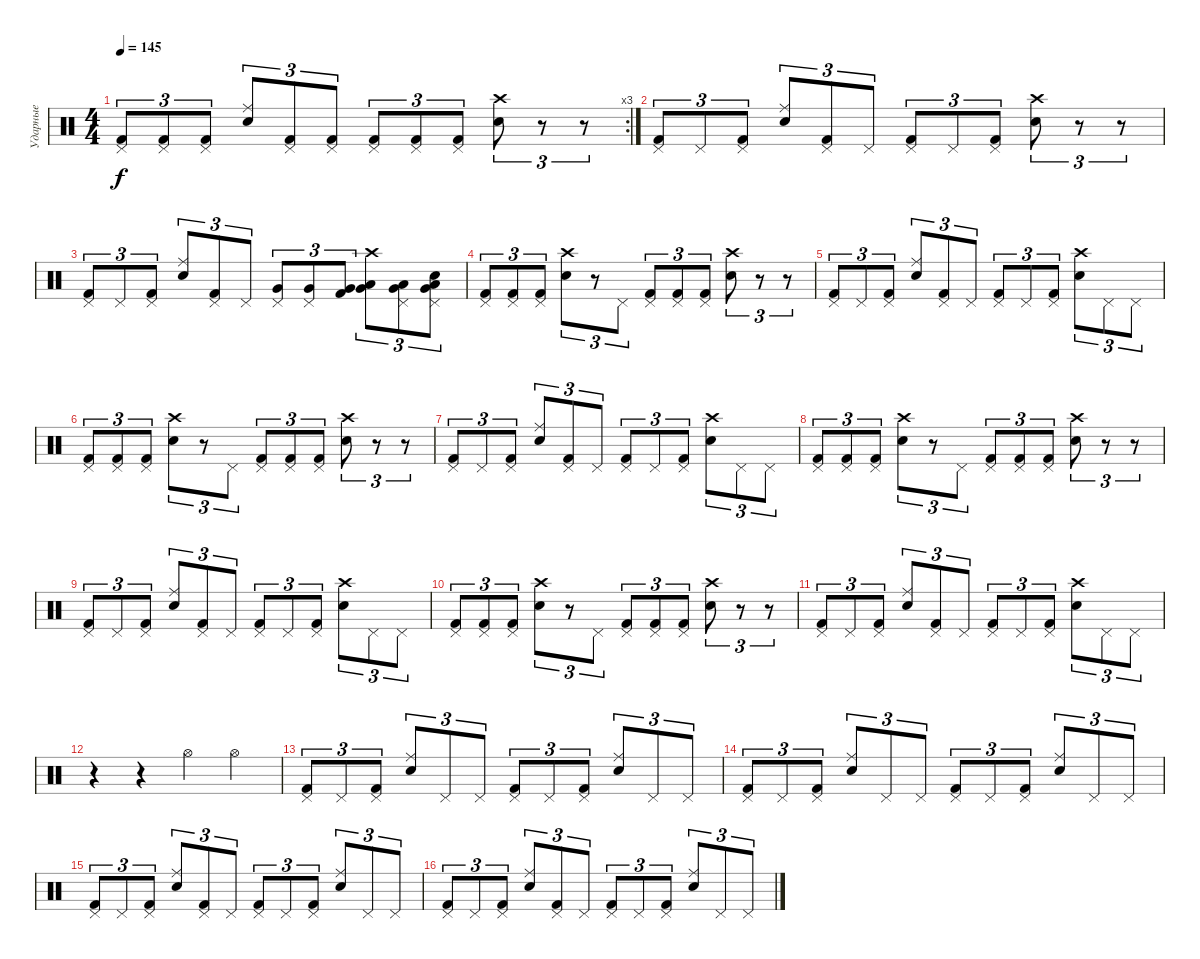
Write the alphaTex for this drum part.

\track ("Ударные" "Ударные") {instrument percussion}
\staff {score}
\articulation defaults
\rc 3
\ts (4 4)
\tempo 145
\clef neutral
\ks c
("Kick (hit) 2" "Pedal Hi-Hat (hit)").8{tu (3 2) dy f} ("Pedal Hi-Hat (hit)" "Kick (hit) 2").8{tu (3 2)} ("Kick (hit) 2" "Pedal Hi-Hat (hit)").8{tu (3 2)} ("Electric Snare (hit)" "Ride (middle)").8{tu (3 2)} ("Kick (hit) 2" "Pedal Hi-Hat (hit)").8{tu (3 2)} ("Kick (hit) 2" "Pedal Hi-Hat (hit)").8{tu (3 2)} ("Kick (hit) 2" "Pedal Hi-Hat (hit)").8{tu (3 2)} ("Kick (hit) 2" "Pedal Hi-Hat (hit)").8{tu (3 2)} ("Pedal Hi-Hat (hit)" "Kick (hit) 2").8{tu (3 2)} ("Electric Snare (hit)" "Crash high (hit)").8{tu (3 2)} r.8{tu (3 2)} r.8{tu (3 2)} |
("Kick (hit) 2" "Pedal Hi-Hat (hit)").8{tu (3 2)} "Pedal Hi-Hat (hit)".8{tu (3 2)} ("Kick (hit) 2" "Pedal Hi-Hat (hit)").8{tu (3 2)} ("Electric Snare (hit)" "Ride (middle)").8{tu (3 2)} ("Kick (hit) 2" "Pedal Hi-Hat (hit)").8{tu (3 2)} "Pedal Hi-Hat (hit)".8{tu (3 2)} ("Kick (hit) 2" "Pedal Hi-Hat (hit)").8{tu (3 2)} "Pedal Hi-Hat (hit)".8{tu (3 2)} ("Pedal Hi-Hat (hit)" "Kick (hit) 2").8{tu (3 2)} ("Electric Snare (hit)" "Crash high (hit)").8{tu (3 2)} r.8{tu (3 2)} r.8{tu (3 2)} |
("Kick (hit) 2" "Pedal Hi-Hat (hit)").8{tu (3 2)} "Pedal Hi-Hat (hit)".8{tu (3 2)} ("Kick (hit) 2" "Pedal Hi-Hat (hit)").8{tu (3 2)} ("Electric Snare (hit)" "Ride (middle)").8{tu (3 2)} ("Kick (hit) 2" "Pedal Hi-Hat (hit)").8{tu (3 2)} "Pedal Hi-Hat (hit)".8{tu (3 2)} ("Very Low Tom (hit)" "Pedal Hi-Hat (hit)").8{tu (3 2)} ("Very Low Tom (hit)" "Pedal Hi-Hat (hit)").8{tu (3 2)} ("Very Low Tom (hit)" "Kick (hit) 2").8{tu (3 2)} ("Low Tom (hit)" "Very Low Tom (hit)" "Crash high (hit)").8{tu (3 2)} ("Low Tom (hit)" "Very Low Tom (hit)" "Pedal Hi-Hat (hit)").8{tu (3 2)} ("Low Tom (hit)" "Very Low Tom (hit)" "Pedal Hi-Hat (hit)" "Electric Snare (hit)").8{tu (3 2)} |
("Kick (hit) 2" "Pedal Hi-Hat (hit)").8{tu (3 2)} ("Kick (hit) 2" "Pedal Hi-Hat (hit)").8{tu (3 2)} ("Kick (hit) 2" "Pedal Hi-Hat (hit)").8{tu (3 2)} ("Crash high (hit)" "Electric Snare (hit)").8{tu (3 2)} r.8{tu (3 2)} "Pedal Hi-Hat (hit)".8{tu (3 2)} ("Kick (hit) 2" "Pedal Hi-Hat (hit)").8{tu (3 2)} ("Kick (hit) 2" "Pedal Hi-Hat (hit)").8{tu (3 2)} ("Kick (hit) 2" "Pedal Hi-Hat (hit)").8{tu (3 2)} ("Electric Snare (hit)" "Crash high (hit)").8{tu (3 2)} r.8{tu (3 2)} r.8{tu (3 2)} |
("Kick (hit) 2" "Pedal Hi-Hat (hit)").8{tu (3 2)} "Pedal Hi-Hat (hit)".8{tu (3 2)} ("Kick (hit) 2" "Pedal Hi-Hat (hit)").8{tu (3 2)} ("Electric Snare (hit)" "Ride (middle)").8{tu (3 2)} ("Kick (hit) 2" "Pedal Hi-Hat (hit)").8{tu (3 2)} "Pedal Hi-Hat (hit)".8{tu (3 2)} ("Kick (hit) 2" "Pedal Hi-Hat (hit)").8{tu (3 2)} "Pedal Hi-Hat (hit)".8{tu (3 2)} ("Pedal Hi-Hat (hit)" "Kick (hit) 2").8{tu (3 2)} ("Electric Snare (hit)" "Crash high (hit)").8{tu (3 2)} "Pedal Hi-Hat (hit)".8{tu (3 2)} "Pedal Hi-Hat (hit)".8{tu (3 2)} |
("Kick (hit) 2" "Pedal Hi-Hat (hit)").8{tu (3 2)} ("Kick (hit) 2" "Pedal Hi-Hat (hit)").8{tu (3 2)} ("Kick (hit) 2" "Pedal Hi-Hat (hit)").8{tu (3 2)} ("Crash high (hit)" "Electric Snare (hit)").8{tu (3 2)} r.8{tu (3 2)} "Pedal Hi-Hat (hit)".8{tu (3 2)} ("Kick (hit) 2" "Pedal Hi-Hat (hit)").8{tu (3 2)} ("Kick (hit) 2" "Pedal Hi-Hat (hit)").8{tu (3 2)} ("Kick (hit) 2" "Pedal Hi-Hat (hit)").8{tu (3 2)} ("Electric Snare (hit)" "Crash high (hit)").8{tu (3 2)} r.8{tu (3 2)} r.8{tu (3 2)} |
("Kick (hit) 2" "Pedal Hi-Hat (hit)").8{tu (3 2)} "Pedal Hi-Hat (hit)".8{tu (3 2)} ("Kick (hit) 2" "Pedal Hi-Hat (hit)").8{tu (3 2)} ("Electric Snare (hit)" "Ride (middle)").8{tu (3 2)} ("Kick (hit) 2" "Pedal Hi-Hat (hit)").8{tu (3 2)} "Pedal Hi-Hat (hit)".8{tu (3 2)} ("Kick (hit) 2" "Pedal Hi-Hat (hit)").8{tu (3 2)} "Pedal Hi-Hat (hit)".8{tu (3 2)} ("Pedal Hi-Hat (hit)" "Kick (hit) 2").8{tu (3 2)} ("Electric Snare (hit)" "Crash high (hit)").8{tu (3 2)} "Pedal Hi-Hat (hit)".8{tu (3 2)} "Pedal Hi-Hat (hit)".8{tu (3 2)} |
("Kick (hit) 2" "Pedal Hi-Hat (hit)").8{tu (3 2)} ("Kick (hit) 2" "Pedal Hi-Hat (hit)").8{tu (3 2)} ("Kick (hit) 2" "Pedal Hi-Hat (hit)").8{tu (3 2)} ("Crash high (hit)" "Electric Snare (hit)").8{tu (3 2)} r.8{tu (3 2)} "Pedal Hi-Hat (hit)".8{tu (3 2)} ("Kick (hit) 2" "Pedal Hi-Hat (hit)").8{tu (3 2)} ("Kick (hit) 2" "Pedal Hi-Hat (hit)").8{tu (3 2)} ("Kick (hit) 2" "Pedal Hi-Hat (hit)").8{tu (3 2)} ("Electric Snare (hit)" "Crash high (hit)").8{tu (3 2)} r.8{tu (3 2)} r.8{tu (3 2)} |
("Kick (hit) 2" "Pedal Hi-Hat (hit)").8{tu (3 2)} "Pedal Hi-Hat (hit)".8{tu (3 2)} ("Kick (hit) 2" "Pedal Hi-Hat (hit)").8{tu (3 2)} ("Electric Snare (hit)" "Ride (middle)").8{tu (3 2)} ("Kick (hit) 2" "Pedal Hi-Hat (hit)").8{tu (3 2)} "Pedal Hi-Hat (hit)".8{tu (3 2)} ("Kick (hit) 2" "Pedal Hi-Hat (hit)").8{tu (3 2)} "Pedal Hi-Hat (hit)".8{tu (3 2)} ("Pedal Hi-Hat (hit)" "Kick (hit) 2").8{tu (3 2)} ("Electric Snare (hit)" "Crash high (hit)").8{tu (3 2)} "Pedal Hi-Hat (hit)".8{tu (3 2)} "Pedal Hi-Hat (hit)".8{tu (3 2)} |
("Kick (hit) 2" "Pedal Hi-Hat (hit)").8{tu (3 2)} ("Kick (hit) 2" "Pedal Hi-Hat (hit)").8{tu (3 2)} ("Kick (hit) 2" "Pedal Hi-Hat (hit)").8{tu (3 2)} ("Crash high (hit)" "Electric Snare (hit)").8{tu (3 2)} r.8{tu (3 2)} "Pedal Hi-Hat (hit)".8{tu (3 2)} ("Kick (hit) 2" "Pedal Hi-Hat (hit)").8{tu (3 2)} ("Kick (hit) 2" "Pedal Hi-Hat (hit)").8{tu (3 2)} ("Kick (hit) 2" "Pedal Hi-Hat (hit)").8{tu (3 2)} ("Electric Snare (hit)" "Crash high (hit)").8{tu (3 2)} r.8{tu (3 2)} r.8{tu (3 2)} |
("Kick (hit) 2" "Pedal Hi-Hat (hit)").8{tu (3 2)} "Pedal Hi-Hat (hit)".8{tu (3 2)} ("Kick (hit) 2" "Pedal Hi-Hat (hit)").8{tu (3 2)} ("Electric Snare (hit)" "Ride (middle)").8{tu (3 2)} ("Kick (hit) 2" "Pedal Hi-Hat (hit)").8{tu (3 2)} "Pedal Hi-Hat (hit)".8{tu (3 2)} ("Kick (hit) 2" "Pedal Hi-Hat (hit)").8{tu (3 2)} "Pedal Hi-Hat (hit)".8{tu (3 2)} ("Pedal Hi-Hat (hit)" "Kick (hit) 2").8{tu (3 2)} ("Electric Snare (hit)" "Crash high (hit)").8{tu (3 2)} "Pedal Hi-Hat (hit)".8{tu (3 2)} "Pedal Hi-Hat (hit)".8{tu (3 2)} |
r.4 r.4 "Hi-Hat (open)".4 "Hi-Hat (open)".4 |
("Kick (hit) 2" "Pedal Hi-Hat (hit)").8{tu (3 2)} "Pedal Hi-Hat (hit)".8{tu (3 2)} ("Kick (hit) 2" "Pedal Hi-Hat (hit)").8{tu (3 2)} ("Electric Snare (hit)" "Ride (middle)").8{tu (3 2)} "Pedal Hi-Hat (hit)".8{tu (3 2)} "Pedal Hi-Hat (hit)".8{tu (3 2)} ("Kick (hit) 2" "Pedal Hi-Hat (hit)").8{tu (3 2)} "Pedal Hi-Hat (hit)".8{tu (3 2)} ("Pedal Hi-Hat (hit)" "Kick (hit) 2").8{tu (3 2)} ("Electric Snare (hit)" "Ride (middle)").8{tu (3 2)} "Pedal Hi-Hat (hit)".8{tu (3 2)} "Pedal Hi-Hat (hit)".8{tu (3 2)} |
("Kick (hit) 2" "Pedal Hi-Hat (hit)").8{tu (3 2)} "Pedal Hi-Hat (hit)".8{tu (3 2)} ("Kick (hit) 2" "Pedal Hi-Hat (hit)").8{tu (3 2)} ("Electric Snare (hit)" "Ride (middle)").8{tu (3 2)} "Pedal Hi-Hat (hit)".8{tu (3 2)} "Pedal Hi-Hat (hit)".8{tu (3 2)} ("Kick (hit) 2" "Pedal Hi-Hat (hit)").8{tu (3 2)} "Pedal Hi-Hat (hit)".8{tu (3 2)} ("Pedal Hi-Hat (hit)" "Kick (hit) 2").8{tu (3 2)} ("Electric Snare (hit)" "Ride (middle)").8{tu (3 2)} "Pedal Hi-Hat (hit)".8{tu (3 2)} "Pedal Hi-Hat (hit)".8{tu (3 2)} |
("Kick (hit) 2" "Pedal Hi-Hat (hit)").8{tu (3 2)} "Pedal Hi-Hat (hit)".8{tu (3 2)} ("Kick (hit) 2" "Pedal Hi-Hat (hit)").8{tu (3 2)} ("Electric Snare (hit)" "Ride (middle)").8{tu (3 2)} ("Kick (hit) 2" "Pedal Hi-Hat (hit)").8{tu (3 2)} "Pedal Hi-Hat (hit)".8{tu (3 2)} ("Kick (hit) 2" "Pedal Hi-Hat (hit)").8{tu (3 2)} "Pedal Hi-Hat (hit)".8{tu (3 2)} ("Pedal Hi-Hat (hit)" "Kick (hit) 2").8{tu (3 2)} ("Electric Snare (hit)" "Ride (middle)").8{tu (3 2)} "Pedal Hi-Hat (hit)".8{tu (3 2)} "Pedal Hi-Hat (hit)".8{tu (3 2)} |
("Kick (hit) 2" "Pedal Hi-Hat (hit)").8{tu (3 2)} "Pedal Hi-Hat (hit)".8{tu (3 2)} ("Kick (hit) 2" "Pedal Hi-Hat (hit)").8{tu (3 2)} ("Electric Snare (hit)" "Ride (middle)").8{tu (3 2)} ("Kick (hit) 2" "Pedal Hi-Hat (hit)").8{tu (3 2)} "Pedal Hi-Hat (hit)".8{tu (3 2)} ("Kick (hit) 2" "Pedal Hi-Hat (hit)").8{tu (3 2)} "Pedal Hi-Hat (hit)".8{tu (3 2)} ("Pedal Hi-Hat (hit)" "Kick (hit) 2").8{tu (3 2)} ("Electric Snare (hit)" "Ride (middle)").8{tu (3 2)} "Pedal Hi-Hat (hit)".8{tu (3 2)} "Pedal Hi-Hat (hit)".8{tu (3 2)}
